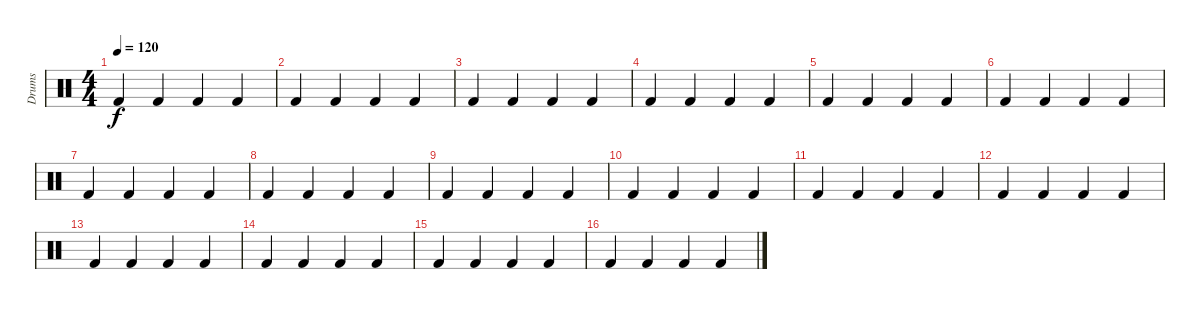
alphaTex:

\track ("Drums" "Drums") {instrument percussion}
\staff {score}
\articulation defaults
\ts (4 4)
\tempo 120
\clef neutral
\ks c "Kick (hit) 2".4{dy f} "Kick (hit) 2".4 "Kick (hit) 2".4 "Kick (hit) 2".4
|
"Kick (hit) 2".4 "Kick (hit) 2".4 "Kick (hit) 2".4 "Kick (hit) 2".4 |
"Kick (hit) 2".4 "Kick (hit) 2".4 "Kick (hit) 2".4 "Kick (hit) 2".4 |
"Kick (hit) 2".4 "Kick (hit) 2".4 "Kick (hit) 2".4 "Kick (hit) 2".4 |
"Kick (hit) 2".4 "Kick (hit) 2".4 "Kick (hit) 2".4 "Kick (hit) 2".4 |
"Kick (hit) 2".4 "Kick (hit) 2".4 "Kick (hit) 2".4 "Kick (hit) 2".4 |
"Kick (hit) 2".4 "Kick (hit) 2".4 "Kick (hit) 2".4 "Kick (hit) 2".4 |
"Kick (hit) 2".4 "Kick (hit) 2".4 "Kick (hit) 2".4 "Kick (hit) 2".4 |
"Kick (hit) 2".4 "Kick (hit) 2".4 "Kick (hit) 2".4 "Kick (hit) 2".4 |
"Kick (hit) 2".4 "Kick (hit) 2".4 "Kick (hit) 2".4 "Kick (hit) 2".4 |
"Kick (hit) 2".4 "Kick (hit) 2".4 "Kick (hit) 2".4 "Kick (hit) 2".4 |
"Kick (hit) 2".4 "Kick (hit) 2".4 "Kick (hit) 2".4 "Kick (hit) 2".4 |
"Kick (hit) 2".4 "Kick (hit) 2".4 "Kick (hit) 2".4 "Kick (hit) 2".4 |
"Kick (hit) 2".4 "Kick (hit) 2".4 "Kick (hit) 2".4 "Kick (hit) 2".4 |
"Kick (hit) 2".4 "Kick (hit) 2".4 "Kick (hit) 2".4 "Kick (hit) 2".4 |
"Kick (hit) 2".4 "Kick (hit) 2".4 "Kick (hit) 2".4 "Kick (hit) 2".4
